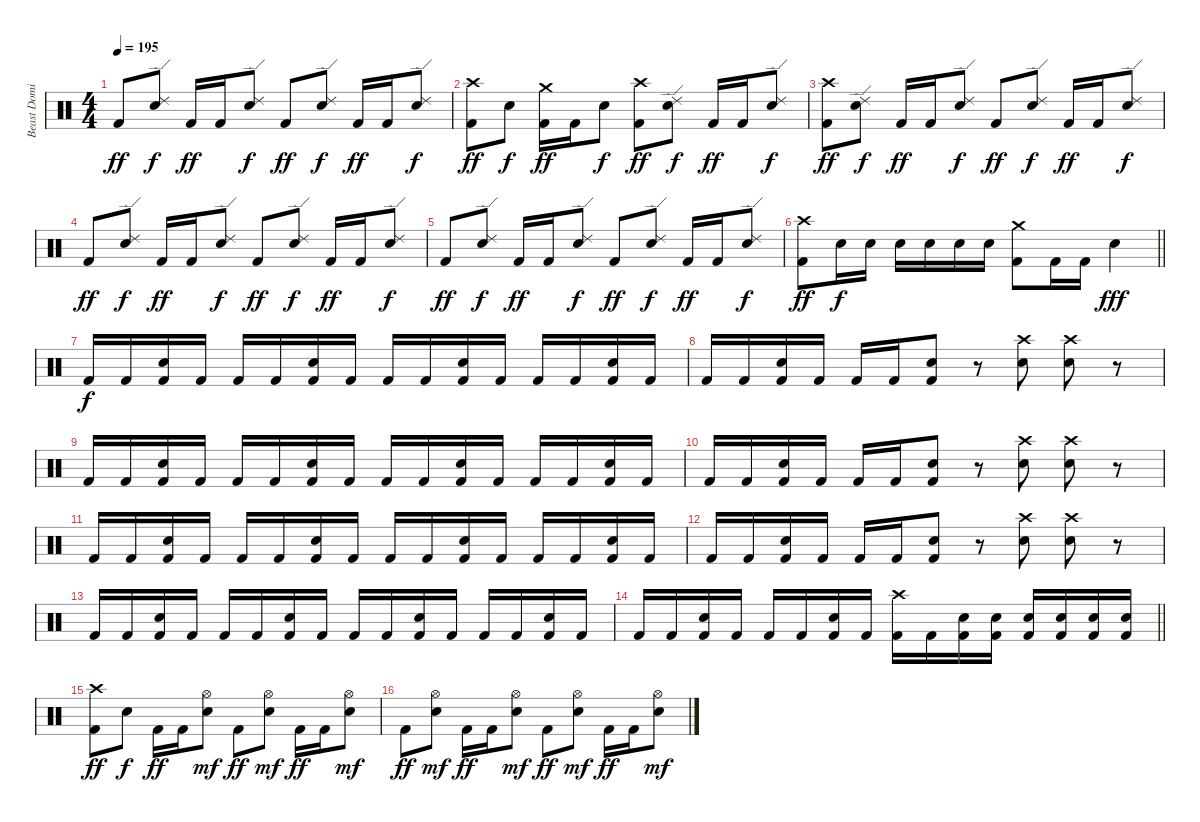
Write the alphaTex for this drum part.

\track ("Beast Dominator" "Beast Domi") {instrument percussion}
\staff {score}
\articulation defaults
\ts (4 4)
\tempo 195
\clef neutral
\ks c "Kick (hit) 2".8{dy ff}
("Ride (edge) 2" "Snare (hit) 2").8{dy f} "Kick (hit) 2".16{dy ff} "Kick (hit) 2".16 ("Ride (edge) 2" "Snare (hit) 2").8{dy f} "Kick (hit) 2".8{dy ff} ("Ride (edge) 2" "Snare (hit) 2").8{dy f} "Kick (hit) 2".16{dy ff} "Kick (hit) 2".16 ("Ride (edge) 2" "Snare (hit) 2").8{dy f} |
("Crash high (hit)" "Kick (hit) 2").8{dy ff} "Snare (hit) 2".8{dy f} ("Crash medium (hit)" "Kick (hit) 2").16{dy ff} "Kick (hit) 2".16 "Snare (hit) 2".8{dy f} ("Crash high (hit)" "Kick (hit) 2").8{dy ff} ("Ride (edge) 2" "Snare (hit) 2").8{dy f} "Kick (hit) 2".16{dy ff} "Kick (hit) 2".16 ("Ride (edge) 2" "Snare (hit) 2").8{dy f} |
("Crash high (hit)" "Kick (hit) 2").8{dy ff} ("Ride (edge) 2" "Snare (hit) 2").8{dy f} "Kick (hit) 2".16{dy ff} "Kick (hit) 2".16 ("Ride (edge) 2" "Snare (hit) 2").8{dy f} "Kick (hit) 2".8{dy ff} ("Ride (edge) 2" "Snare (hit) 2").8{dy f} "Kick (hit) 2".16{dy ff} "Kick (hit) 2".16 ("Ride (edge) 2" "Snare (hit) 2").8{dy f} |
"Kick (hit) 2".8{dy ff} ("Ride (edge) 2" "Snare (hit) 2").8{dy f} "Kick (hit) 2".16{dy ff} "Kick (hit) 2".16 ("Ride (edge) 2" "Snare (hit) 2").8{dy f} "Kick (hit) 2".8{dy ff} ("Ride (edge) 2" "Snare (hit) 2").8{dy f} "Kick (hit) 2".16{dy ff} "Kick (hit) 2".16 ("Ride (edge) 2" "Snare (hit) 2").8{dy f} |
"Kick (hit) 2".8{dy ff} ("Ride (edge) 2" "Snare (hit) 2").8{dy f} "Kick (hit) 2".16{dy ff} "Kick (hit) 2".16 ("Ride (edge) 2" "Snare (hit) 2").8{dy f} "Kick (hit) 2".8{dy ff} ("Ride (edge) 2" "Snare (hit) 2").8{dy f} "Kick (hit) 2".16{dy ff} "Kick (hit) 2".16 ("Ride (edge) 2" "Snare (hit) 2").8{dy f} |
\barLineRight lightlight
("Crash high (hit)" "Kick (hit) 2").8{dy ff} "Snare (hit) 2".16{dy f} "Snare (hit) 2".16 "Snare (hit) 2".16 "Snare (hit) 2".16 "Snare (hit) 2".16 "Snare (hit) 2".16 ("Crash medium (hit)" "Kick (hit) 2").8 "Kick (hit) 2".16 "Kick (hit) 2".16 "Snare (hit) 2".4{dy fff} |
"Kick (hit) 2".16{dy f} "Kick (hit) 2".16 ("Snare (hit) 2" "Kick (hit) 2").16 "Kick (hit) 2".16 "Kick (hit) 2".16 "Kick (hit) 2".16 ("Snare (hit) 2" "Kick (hit) 2").16 "Kick (hit) 2".16 "Kick (hit) 2".16 "Kick (hit) 2".16 ("Snare (hit) 2" "Kick (hit) 2").16 "Kick (hit) 2".16 "Kick (hit) 2".16 "Kick (hit) 2".16 ("Snare (hit) 2" "Kick (hit) 2").16 "Kick (hit) 2".16 |
"Kick (hit) 2".16 "Kick (hit) 2".16 ("Snare (hit) 2" "Kick (hit) 2").16 "Kick (hit) 2".16 "Kick (hit) 2".16 "Kick (hit) 2".16 ("Snare (hit) 2" "Kick (hit) 2").8 r.8 ("Crash high (hit)" "Snare (hit) 2").8 ("Crash high (hit)" "Snare (hit) 2").8 r.8 |
"Kick (hit) 2".16 "Kick (hit) 2".16 ("Snare (hit) 2" "Kick (hit) 2").16 "Kick (hit) 2".16 "Kick (hit) 2".16 "Kick (hit) 2".16 ("Snare (hit) 2" "Kick (hit) 2").16 "Kick (hit) 2".16 "Kick (hit) 2".16 "Kick (hit) 2".16 ("Snare (hit) 2" "Kick (hit) 2").16 "Kick (hit) 2".16 "Kick (hit) 2".16 "Kick (hit) 2".16 ("Snare (hit) 2" "Kick (hit) 2").16 "Kick (hit) 2".16 |
"Kick (hit) 2".16 "Kick (hit) 2".16 ("Snare (hit) 2" "Kick (hit) 2").16 "Kick (hit) 2".16 "Kick (hit) 2".16 "Kick (hit) 2".16 ("Snare (hit) 2" "Kick (hit) 2").8 r.8 ("Crash high (hit)" "Snare (hit) 2").8 ("Crash high (hit)" "Snare (hit) 2").8 r.8 |
"Kick (hit) 2".16 "Kick (hit) 2".16 ("Snare (hit) 2" "Kick (hit) 2").16 "Kick (hit) 2".16 "Kick (hit) 2".16 "Kick (hit) 2".16 ("Snare (hit) 2" "Kick (hit) 2").16 "Kick (hit) 2".16 "Kick (hit) 2".16 "Kick (hit) 2".16 ("Snare (hit) 2" "Kick (hit) 2").16 "Kick (hit) 2".16 "Kick (hit) 2".16 "Kick (hit) 2".16 ("Snare (hit) 2" "Kick (hit) 2").16 "Kick (hit) 2".16 |
"Kick (hit) 2".16 "Kick (hit) 2".16 ("Snare (hit) 2" "Kick (hit) 2").16 "Kick (hit) 2".16 "Kick (hit) 2".16 "Kick (hit) 2".16 ("Snare (hit) 2" "Kick (hit) 2").8 r.8 ("Crash high (hit)" "Snare (hit) 2").8 ("Crash high (hit)" "Snare (hit) 2").8 r.8 |
"Kick (hit) 2".16 "Kick (hit) 2".16 ("Snare (hit) 2" "Kick (hit) 2").16 "Kick (hit) 2".16 "Kick (hit) 2".16 "Kick (hit) 2".16 ("Snare (hit) 2" "Kick (hit) 2").16 "Kick (hit) 2".16 "Kick (hit) 2".16 "Kick (hit) 2".16 ("Snare (hit) 2" "Kick (hit) 2").16 "Kick (hit) 2".16 "Kick (hit) 2".16 "Kick (hit) 2".16 ("Snare (hit) 2" "Kick (hit) 2").16 "Kick (hit) 2".16 |
\barLineRight lightlight "Kick (hit) 2".16 "Kick (hit) 2".16
("Snare (hit) 2" "Kick (hit) 2").16 "Kick (hit) 2".16 "Kick (hit) 2".16 "Kick (hit) 2".16 ("Snare (hit) 2" "Kick (hit) 2").16 "Kick (hit) 2".16 ("Crash high (hit)" "Kick (hit) 2").16 "Kick (hit) 2".16 ("Snare (hit) 2" "Kick (hit) 2").16 ("Snare (hit) 2" "Kick (hit) 2").16 ("Snare (hit) 2" "Kick (hit) 2").16 ("Snare (hit) 2" "Kick (hit) 2").16 ("Snare (hit) 2" "Kick (hit) 2").16 ("Snare (hit) 2" "Kick (hit) 2").16 |
("Crash high (hit)" "Kick (hit) 2").8{dy ff} "Snare (hit) 2".8{dy f} "Kick (hit) 2".16{dy ff} "Kick (hit) 2".16 ("Hi-Hat (open)" "Snare (hit) 2").8{dy mf} "Kick (hit) 2".8{dy ff} ("Hi-Hat (open)" "Snare (hit) 2").8{dy mf} "Kick (hit) 2".16{dy ff} "Kick (hit) 2".16 ("Hi-Hat (open)" "Snare (hit) 2").8{dy mf} |
"Kick (hit) 2".8{dy ff} ("Hi-Hat (open)" "Snare (hit) 2").8{dy mf} "Kick (hit) 2".16{dy ff} "Kick (hit) 2".16 ("Hi-Hat (open)" "Snare (hit) 2").8{dy mf} "Kick (hit) 2".8{dy ff} ("Hi-Hat (open)" "Snare (hit) 2").8{dy mf} "Kick (hit) 2".16{dy ff} "Kick (hit) 2".16 ("Hi-Hat (open)" "Snare (hit) 2").8{dy mf}
